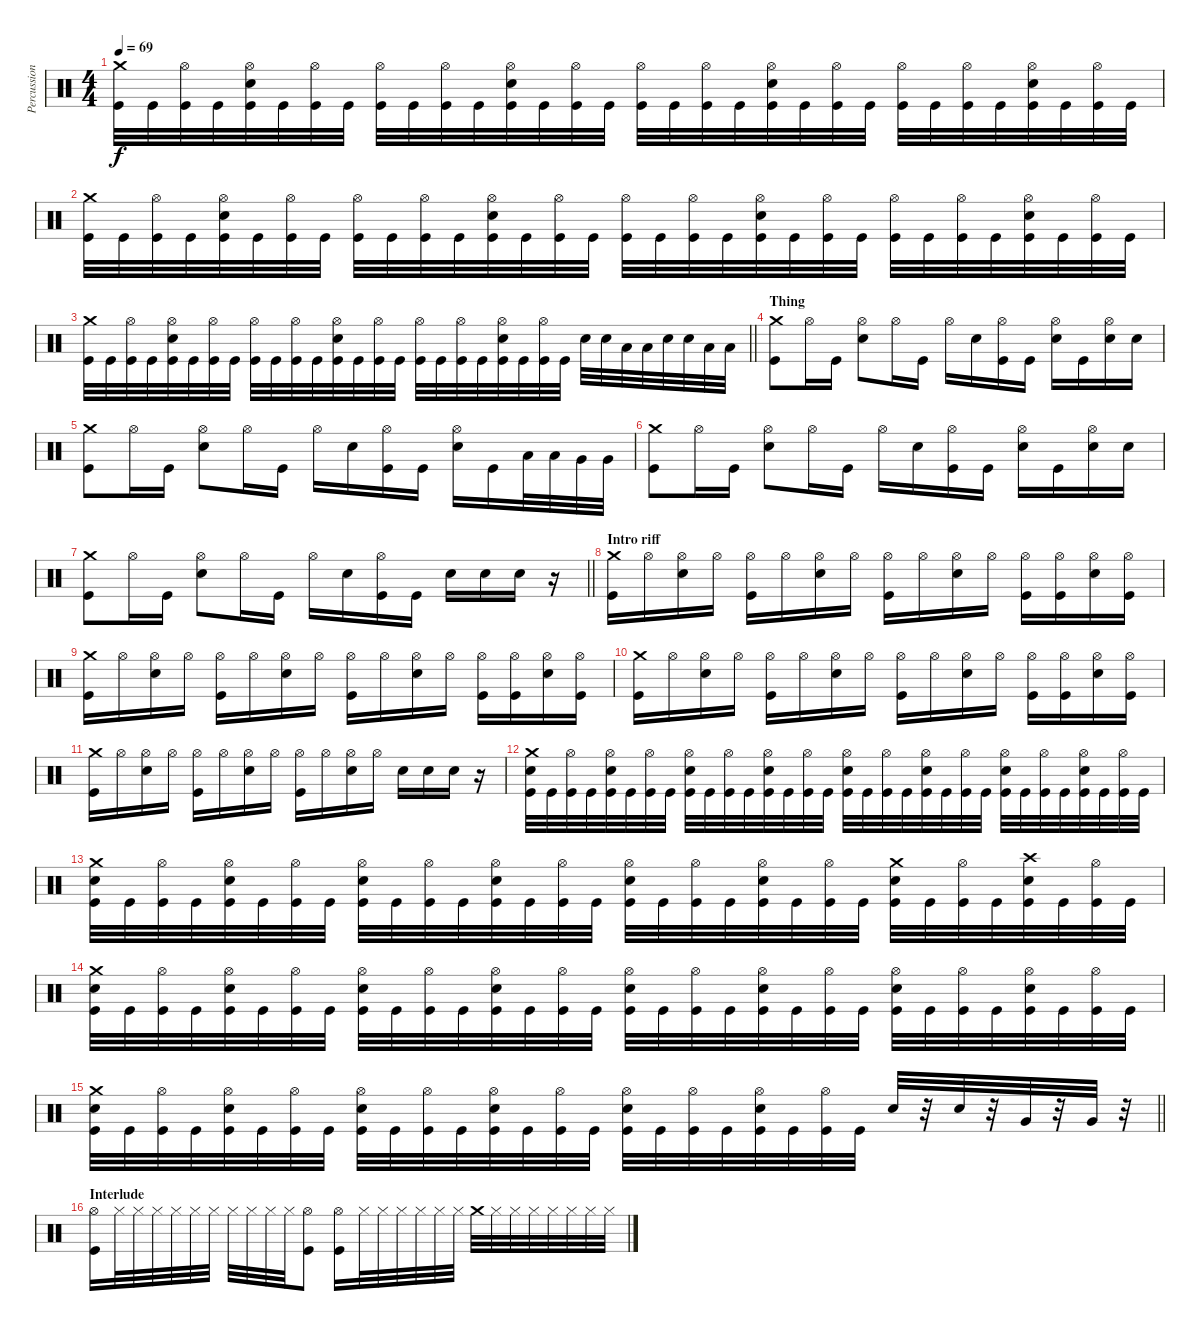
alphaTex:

\track ("Percussion" "Percussion") {instrument percussion}
\staff {score}
\articulation defaults
\ts (4 4)
\tempo 69
\clef neutral
\ks c
("Crash medium (hit)" "Kick (hit)").32{dy f} "Kick (hit)".32 ("Hi-Hat (open)" "Kick (hit)").32 "Kick (hit)".32 ("Hi-Hat (open)" "Electric Snare (hit)" "Kick (hit)").32 "Kick (hit)".32 ("Hi-Hat (open)" "Kick (hit)").32 "Kick (hit)".32 ("Hi-Hat (open)" "Kick (hit)").32 "Kick (hit)".32 ("Hi-Hat (open)" "Kick (hit)").32 "Kick (hit)".32 ("Hi-Hat (open)" "Electric Snare (hit)" "Kick (hit)").32 "Kick (hit)".32 ("Hi-Hat (open)" "Kick (hit)").32 "Kick (hit)".32 ("Hi-Hat (open)" "Kick (hit)").32 "Kick (hit)".32 ("Hi-Hat (open)" "Kick (hit)").32 "Kick (hit)".32 ("Hi-Hat (open)" "Electric Snare (hit)" "Kick (hit)").32 "Kick (hit)".32 ("Hi-Hat (open)" "Kick (hit)").32 "Kick (hit)".32 ("Hi-Hat (open)" "Kick (hit)").32 "Kick (hit)".32 ("Hi-Hat (open)" "Kick (hit)").32 "Kick (hit)".32 ("Hi-Hat (open)" "Electric Snare (hit)" "Kick (hit)").32 "Kick (hit)".32 ("Hi-Hat (open)" "Kick (hit)").32 "Kick (hit)".32 |
("Crash medium (hit)" "Kick (hit)").32 "Kick (hit)".32 ("Hi-Hat (open)" "Kick (hit)").32 "Kick (hit)".32 ("Hi-Hat (open)" "Electric Snare (hit)" "Kick (hit)").32 "Kick (hit)".32 ("Hi-Hat (open)" "Kick (hit)").32 "Kick (hit)".32 ("Hi-Hat (open)" "Kick (hit)").32 "Kick (hit)".32 ("Hi-Hat (open)" "Kick (hit)").32 "Kick (hit)".32 ("Hi-Hat (open)" "Electric Snare (hit)" "Kick (hit)").32 "Kick (hit)".32 ("Hi-Hat (open)" "Kick (hit)").32 "Kick (hit)".32 ("Hi-Hat (open)" "Kick (hit)").32 "Kick (hit)".32 ("Hi-Hat (open)" "Kick (hit)").32 "Kick (hit)".32 ("Hi-Hat (open)" "Electric Snare (hit)" "Kick (hit)").32 "Kick (hit)".32 ("Hi-Hat (open)" "Kick (hit)").32 "Kick (hit)".32 ("Hi-Hat (open)" "Kick (hit)").32 "Kick (hit)".32 ("Hi-Hat (open)" "Kick (hit)").32 "Kick (hit)".32 ("Hi-Hat (open)" "Electric Snare (hit)" "Kick (hit)").32 "Kick (hit)".32 ("Hi-Hat (open)" "Kick (hit)").32 "Kick (hit)".32 |
\barLineRight lightlight
("Crash medium (hit)" "Kick (hit)").32 "Kick (hit)".32 ("Hi-Hat (open)" "Kick (hit)").32 "Kick (hit)".32 ("Hi-Hat (open)" "Electric Snare (hit)" "Kick (hit)").32 "Kick (hit)".32 ("Hi-Hat (open)" "Kick (hit)").32 "Kick (hit)".32 ("Hi-Hat (open)" "Kick (hit)").32 "Kick (hit)".32 ("Hi-Hat (open)" "Kick (hit)").32 "Kick (hit)".32 ("Hi-Hat (open)" "Electric Snare (hit)" "Kick (hit)").32 "Kick (hit)".32 ("Hi-Hat (open)" "Kick (hit)").32 "Kick (hit)".32 ("Hi-Hat (open)" "Kick (hit)").32 "Kick (hit)".32 ("Hi-Hat (open)" "Kick (hit)").32 "Kick (hit)".32 ("Hi-Hat (open)" "Electric Snare (hit)" "Kick (hit)").32 "Kick (hit)".32 ("Hi-Hat (open)" "Kick (hit)").32 "Kick (hit)".32 "Electric Snare (hit)".32 "Electric Snare (hit)".32 "Low Tom (hit)".32 "Low Tom (hit)".32 "Electric Snare (hit)".32 "Electric Snare (hit)".32 "Low Tom (hit)".32 "Low Tom (hit)".32 |
\section ("" "Thing")
("Crash medium (hit)" "Kick (hit)").8 "Hi-Hat (open)".16 "Kick (hit)".16 ("Hi-Hat (open)" "Electric Snare (hit)").8 "Hi-Hat (open)".16 "Kick (hit)".16 "Hi-Hat (open)".16 "Electric Snare (hit)".16 ("Hi-Hat (open)" "Kick (hit)").16 "Kick (hit)".16 ("Hi-Hat (open)" "Electric Snare (hit)").16 "Kick (hit)".16 ("Hi-Hat (open)" "Electric Snare (hit)").16 "Electric Snare (hit)".16 |
("Crash medium (hit)" "Kick (hit)").8 "Hi-Hat (open)".16 "Kick (hit)".16 ("Hi-Hat (open)" "Electric Snare (hit)").8 "Hi-Hat (open)".16 "Kick (hit)".16 "Hi-Hat (open)".16 "Electric Snare (hit)".16 ("Hi-Hat (open)" "Kick (hit)").16 "Kick (hit)".16 ("Hi-Hat (open)" "Electric Snare (hit)").16 "Kick (hit)".16 "Low Tom (hit)".32 "Low Tom (hit)".32 "Very Low Tom (hit)".32 "Very Low Tom (hit)".32 |
("Crash medium (hit)" "Kick (hit)").8 "Hi-Hat (open)".16 "Kick (hit)".16 ("Hi-Hat (open)" "Electric Snare (hit)").8 "Hi-Hat (open)".16 "Kick (hit)".16 "Hi-Hat (open)".16 "Electric Snare (hit)".16 ("Hi-Hat (open)" "Kick (hit)").16 "Kick (hit)".16 ("Hi-Hat (open)" "Electric Snare (hit)").16 "Kick (hit)".16 ("Hi-Hat (open)" "Electric Snare (hit)").16 "Electric Snare (hit)".16 |
\barLineRight lightlight
("Crash medium (hit)" "Kick (hit)").8 "Hi-Hat (open)".16 "Kick (hit)".16 ("Hi-Hat (open)" "Electric Snare (hit)").8 "Hi-Hat (open)".16 "Kick (hit)".16 "Hi-Hat (open)".16 "Electric Snare (hit)".16 ("Hi-Hat (open)" "Kick (hit)").16 "Kick (hit)".16 "Electric Snare (hit)".16 "Electric Snare (hit)".16 "Electric Snare (hit)".16 r.16 |
\section ("" "Intro riff")
("Crash medium (hit)" "Kick (hit)").16 "Hi-Hat (open)".16 ("Hi-Hat (open)" "Electric Snare (hit)").16 "Hi-Hat (open)".16 ("Hi-Hat (open)" "Kick (hit)").16 "Hi-Hat (open)".16 ("Hi-Hat (open)" "Electric Snare (hit)").16 "Hi-Hat (open)".16 ("Hi-Hat (open)" "Kick (hit)").16 "Hi-Hat (open)".16 ("Hi-Hat (open)" "Electric Snare (hit)").16 "Hi-Hat (open)".16 ("Hi-Hat (open)" "Kick (hit)").16 ("Hi-Hat (open)" "Kick (hit)").16 ("Hi-Hat (open)" "Electric Snare (hit)").16 ("Hi-Hat (open)" "Kick (hit)").16 |
("Crash medium (hit)" "Kick (hit)").16 "Hi-Hat (open)".16 ("Hi-Hat (open)" "Electric Snare (hit)").16 "Hi-Hat (open)".16 ("Hi-Hat (open)" "Kick (hit)").16 "Hi-Hat (open)".16 ("Hi-Hat (open)" "Electric Snare (hit)").16 "Hi-Hat (open)".16 ("Hi-Hat (open)" "Kick (hit)").16 "Hi-Hat (open)".16 ("Hi-Hat (open)" "Electric Snare (hit)").16 "Hi-Hat (open)".16 ("Hi-Hat (open)" "Kick (hit)").16 ("Hi-Hat (open)" "Kick (hit)").16 ("Hi-Hat (open)" "Electric Snare (hit)").16 ("Hi-Hat (open)" "Kick (hit)").16 |
("Crash medium (hit)" "Kick (hit)").16 "Hi-Hat (open)".16 ("Hi-Hat (open)" "Electric Snare (hit)").16 "Hi-Hat (open)".16 ("Hi-Hat (open)" "Kick (hit)").16 "Hi-Hat (open)".16 ("Hi-Hat (open)" "Electric Snare (hit)").16 "Hi-Hat (open)".16 ("Hi-Hat (open)" "Kick (hit)").16 "Hi-Hat (open)".16 ("Hi-Hat (open)" "Electric Snare (hit)").16 "Hi-Hat (open)".16 ("Hi-Hat (open)" "Kick (hit)").16 ("Hi-Hat (open)" "Kick (hit)").16 ("Hi-Hat (open)" "Electric Snare (hit)").16 ("Hi-Hat (open)" "Kick (hit)").16 |
("Crash medium (hit)" "Kick (hit)").16 "Hi-Hat (open)".16 ("Hi-Hat (open)" "Electric Snare (hit)").16 "Hi-Hat (open)".16 ("Hi-Hat (open)" "Kick (hit)").16 "Hi-Hat (open)".16 ("Hi-Hat (open)" "Electric Snare (hit)").16 "Hi-Hat (open)".16 ("Hi-Hat (open)" "Kick (hit)").16 "Hi-Hat (open)".16 ("Hi-Hat (open)" "Electric Snare (hit)").16 "Hi-Hat (open)".16 "Electric Snare (hit)".16 "Electric Snare (hit)".16 "Electric Snare (hit)".16 r.16 |
("Crash medium (hit)" "Electric Snare (hit)" "Kick (hit)").32 "Kick (hit)".32 ("Hi-Hat (open)" "Kick (hit)").32 "Kick (hit)".32 ("Hi-Hat (open)" "Electric Snare (hit)" "Kick (hit)").32 "Kick (hit)".32 ("Hi-Hat (open)" "Kick (hit)").32 "Kick (hit)".32 ("Hi-Hat (open)" "Electric Snare (hit)" "Kick (hit)").32 "Kick (hit)".32 ("Hi-Hat (open)" "Kick (hit)").32 "Kick (hit)".32 ("Hi-Hat (open)" "Electric Snare (hit)" "Kick (hit)").32 "Kick (hit)".32 ("Hi-Hat (open)" "Kick (hit)").32 "Kick (hit)".32 ("Hi-Hat (open)" "Electric Snare (hit)" "Kick (hit)").32 "Kick (hit)".32 ("Hi-Hat (open)" "Kick (hit)").32 "Kick (hit)".32 ("Hi-Hat (open)" "Electric Snare (hit)" "Kick (hit)").32 "Kick (hit)".32 ("Hi-Hat (open)" "Kick (hit)").32 "Kick (hit)".32 ("Hi-Hat (open)" "Electric Snare (hit)" "Kick (hit)").32 "Kick (hit)".32 ("Hi-Hat (open)" "Kick (hit)").32 "Kick (hit)".32 ("Hi-Hat (open)" "Electric Snare (hit)" "Kick (hit)").32 "Kick (hit)".32 ("Hi-Hat (open)" "Kick (hit)").32 "Kick (hit)".32 |
("Crash medium (hit)" "Electric Snare (hit)" "Kick (hit)").32 "Kick (hit)".32 ("Hi-Hat (open)" "Kick (hit)").32 "Kick (hit)".32 ("Hi-Hat (open)" "Electric Snare (hit)" "Kick (hit)").32 "Kick (hit)".32 ("Hi-Hat (open)" "Kick (hit)").32 "Kick (hit)".32 ("Hi-Hat (open)" "Electric Snare (hit)" "Kick (hit)").32 "Kick (hit)".32 ("Hi-Hat (open)" "Kick (hit)").32 "Kick (hit)".32 ("Hi-Hat (open)" "Electric Snare (hit)" "Kick (hit)").32 "Kick (hit)".32 ("Hi-Hat (open)" "Kick (hit)").32 "Kick (hit)".32 ("Hi-Hat (open)" "Electric Snare (hit)" "Kick (hit)").32 "Kick (hit)".32 ("Hi-Hat (open)" "Kick (hit)").32 "Kick (hit)".32 ("Hi-Hat (open)" "Electric Snare (hit)" "Kick (hit)").32 "Kick (hit)".32 ("Hi-Hat (open)" "Kick (hit)").32 "Kick (hit)".32 ("Crash medium (hit)" "Electric Snare (hit)" "Kick (hit)").32 "Kick (hit)".32 ("Hi-Hat (open)" "Kick (hit)").32 "Kick (hit)".32 ("Crash high (hit)" "Electric Snare (hit)" "Kick (hit)").32 "Kick (hit)".32 ("Hi-Hat (open)" "Kick (hit)").32 "Kick (hit)".32 |
("Crash medium (hit)" "Electric Snare (hit)" "Kick (hit)").32 "Kick (hit)".32 ("Hi-Hat (open)" "Kick (hit)").32 "Kick (hit)".32 ("Hi-Hat (open)" "Electric Snare (hit)" "Kick (hit)").32 "Kick (hit)".32 ("Hi-Hat (open)" "Kick (hit)").32 "Kick (hit)".32 ("Hi-Hat (open)" "Electric Snare (hit)" "Kick (hit)").32 "Kick (hit)".32 ("Hi-Hat (open)" "Kick (hit)").32 "Kick (hit)".32 ("Hi-Hat (open)" "Electric Snare (hit)" "Kick (hit)").32 "Kick (hit)".32 ("Hi-Hat (open)" "Kick (hit)").32 "Kick (hit)".32 ("Hi-Hat (open)" "Electric Snare (hit)" "Kick (hit)").32 "Kick (hit)".32 ("Hi-Hat (open)" "Kick (hit)").32 "Kick (hit)".32 ("Hi-Hat (open)" "Electric Snare (hit)" "Kick (hit)").32 "Kick (hit)".32 ("Hi-Hat (open)" "Kick (hit)").32 "Kick (hit)".32 ("Hi-Hat (open)" "Electric Snare (hit)" "Kick (hit)").32 "Kick (hit)".32 ("Hi-Hat (open)" "Kick (hit)").32 "Kick (hit)".32 ("Hi-Hat (open)" "Electric Snare (hit)" "Kick (hit)").32 "Kick (hit)".32 ("Hi-Hat (open)" "Kick (hit)").32 "Kick (hit)".32 |
\barLineRight lightlight
("Crash medium (hit)" "Electric Snare (hit)" "Kick (hit)").32 "Kick (hit)".32 ("Hi-Hat (open)" "Kick (hit)").32 "Kick (hit)".32 ("Hi-Hat (open)" "Electric Snare (hit)" "Kick (hit)").32 "Kick (hit)".32 ("Hi-Hat (open)" "Kick (hit)").32 "Kick (hit)".32 ("Hi-Hat (open)" "Electric Snare (hit)" "Kick (hit)").32 "Kick (hit)".32 ("Hi-Hat (open)" "Kick (hit)").32 "Kick (hit)".32 ("Hi-Hat (open)" "Electric Snare (hit)" "Kick (hit)").32 "Kick (hit)".32 ("Hi-Hat (open)" "Kick (hit)").32 "Kick (hit)".32 ("Hi-Hat (open)" "Electric Snare (hit)" "Kick (hit)").32 "Kick (hit)".32 ("Hi-Hat (open)" "Kick (hit)").32 "Kick (hit)".32 ("Hi-Hat (open)" "Electric Snare (hit)" "Kick (hit)").32 "Kick (hit)".32 ("Hi-Hat (open)" "Kick (hit)").32 "Kick (hit)".32 "Electric Snare (hit)".32 r.32 "Electric Snare (hit)".32 r.32 "Very Low Tom (hit)".32 r.32 "Very Low Tom (hit)".32 r.32 |
\section ("" "Interlude")
("Hi-Hat (open)" "Kick (hit)").16 "Hi-Hat (closed)".32 "Hi-Hat (closed)".32 "Hi-Hat (closed)".32 "Hi-Hat (closed)".32 "Hi-Hat (closed)".32 "Hi-Hat (closed)".32 "Hi-Hat (closed)".32 "Hi-Hat (closed)".32 "Hi-Hat (closed)".32 "Hi-Hat (closed)".32 ("Hi-Hat (open)" "Kick (hit)").8 ("Hi-Hat (open)" "Kick (hit)").16 "Hi-Hat (closed)".32 "Hi-Hat (closed)".32 "Hi-Hat (closed)".32 "Hi-Hat (closed)".32 "Hi-Hat (closed)".32 "Hi-Hat (closed)".32 "Crash medium (hit)".32 "Hi-Hat (closed)".32 "Hi-Hat (closed)".32 "Hi-Hat (closed)".32 "Hi-Hat (closed)".32 "Hi-Hat (closed)".32 "Hi-Hat (closed)".32 "Hi-Hat (closed)".32
